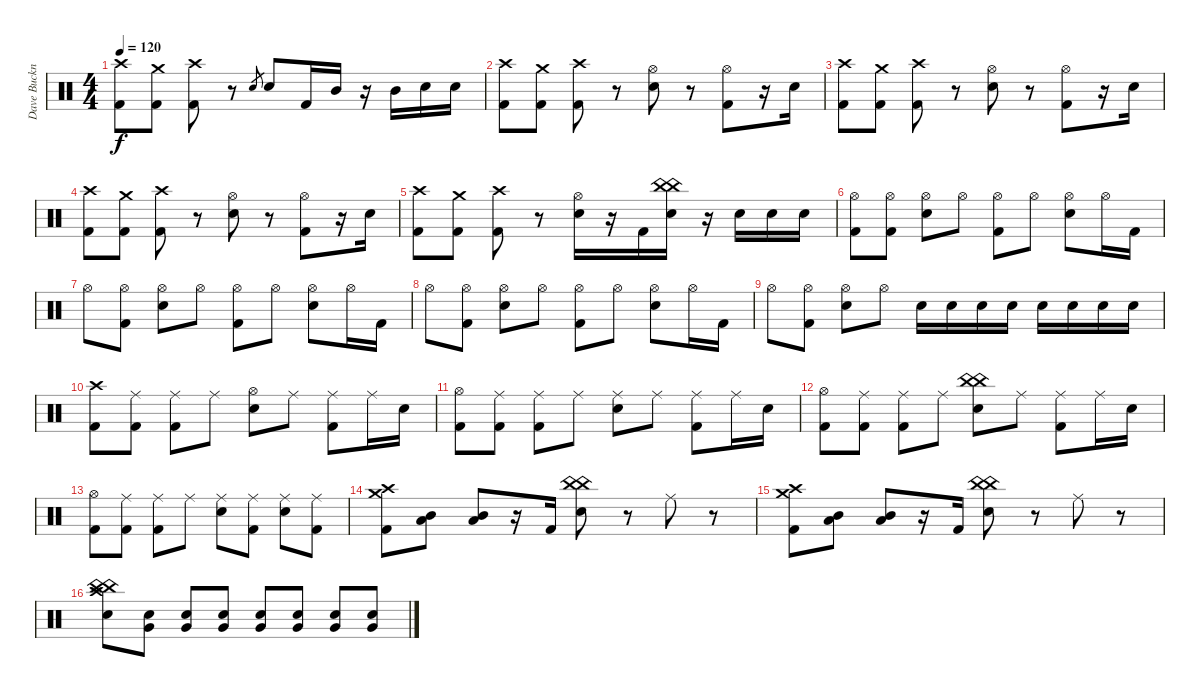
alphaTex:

\track ("Dave Buckner RULZ!!! (Drums)" "Dave Buckn") {instrument percussion}
\staff {score}
\articulation defaults
\ts (4 4)
\tempo 120
\clef neutral
\ks c
("Crash high (hit)" "Kick (hit) 2").8{dy f} ("Crash medium (hit)" "Kick (hit) 2").8 ("Crash high (hit)" "Kick (hit) 2").8 r.8 "Electric Snare (hit)".8{gr} "Electric Snare (hit)".8 "Kick (hit) 2".16 "Mid Tom (hit)".16 r.16 "Mid Tom (hit)".16 "Electric Snare (hit)".16 "Electric Snare (hit)".16 |
("Crash high (hit)" "Kick (hit) 2").8 ("Crash medium (hit)" "Kick (hit) 2").8 ("Crash high (hit)" "Kick (hit) 2").8 r.8 ("Hi-Hat (open)" "Electric Snare (hit)").8 r.8 ("Hi-Hat (open)" "Kick (hit) 2").8 r.16 "Electric Snare (hit)".16 |
("Crash high (hit)" "Kick (hit) 2").8 ("Crash medium (hit)" "Kick (hit) 2").8 ("Crash high (hit)" "Kick (hit) 2").8 r.8 ("Hi-Hat (open)" "Electric Snare (hit)").8 r.8 ("Hi-Hat (open)" "Kick (hit) 2").8 r.16 "Electric Snare (hit)".16 |
("Crash high (hit)" "Kick (hit) 2").8 ("Crash medium (hit)" "Kick (hit) 2").8 ("Crash high (hit)" "Kick (hit) 2").8 r.8 ("Hi-Hat (open)" "Electric Snare (hit)").8 r.8 ("Hi-Hat (open)" "Kick (hit) 2").8 r.16 "Electric Snare (hit)".16 |
("Crash high (hit)" "Kick (hit) 2").8 ("Crash medium (hit)" "Kick (hit) 2").8 ("Crash high (hit)" "Kick (hit) 2").8 r.8 ("Hi-Hat (open)" "Electric Snare (hit)").16 r.16 "Kick (hit) 2".16 ("China (hit)" "China (hit)" "Electric Snare (hit)").16 r.16 "Electric Snare (hit)".16 "Electric Snare (hit)".16 "Electric Snare (hit)".16 |
("Hi-Hat (open)" "Kick (hit) 2").8 ("Hi-Hat (open)" "Kick (hit) 2").8 ("Hi-Hat (open)" "Electric Snare (hit)").8 "Hi-Hat (open)".8 ("Hi-Hat (open)" "Kick (hit) 2").8 "Hi-Hat (open)".8 ("Hi-Hat (open)" "Electric Snare (hit)").8 "Hi-Hat (open)".16 "Kick (hit) 2".16 |
"Hi-Hat (open)".8 ("Hi-Hat (open)" "Kick (hit) 2").8 ("Hi-Hat (open)" "Electric Snare (hit)").8 "Hi-Hat (open)".8 ("Hi-Hat (open)" "Kick (hit) 2").8 "Hi-Hat (open)".8 ("Hi-Hat (open)" "Electric Snare (hit)").8 "Hi-Hat (open)".16 "Kick (hit) 2".16 |
"Hi-Hat (open)".8 ("Hi-Hat (open)" "Kick (hit) 2").8 ("Hi-Hat (open)" "Electric Snare (hit)").8 "Hi-Hat (open)".8 ("Hi-Hat (open)" "Kick (hit) 2").8 "Hi-Hat (open)".8 ("Hi-Hat (open)" "Electric Snare (hit)").8 "Hi-Hat (open)".16 "Kick (hit) 2".16 |
"Hi-Hat (open)".8 ("Hi-Hat (open)" "Kick (hit) 2").8 ("Hi-Hat (open)" "Electric Snare (hit)").8 "Hi-Hat (open)".8 "Electric Snare (hit)".16 "Electric Snare (hit)".16 "Electric Snare (hit)".16 "Electric Snare (hit)".16 "Electric Snare (hit)".16 "Electric Snare (hit)".16 "Electric Snare (hit)".16 "Electric Snare (hit)".16 |
("Crash high (hit)" "Kick (hit) 2").8 ("Ride (middle)" "Kick (hit) 2").8 ("Ride (middle)" "Kick (hit) 2").8 "Ride (middle)".8 ("Hi-Hat (open)" "Electric Snare (hit)").8 "Ride (middle)".8 ("Ride (middle)" "Kick (hit) 2").8 "Ride (middle)".16 "Electric Snare (hit)".16 |
("Hi-Hat (open)" "Kick (hit) 2").8 ("Ride (middle)" "Kick (hit) 2").8 ("Ride (middle)" "Kick (hit) 2").8 "Ride (middle)".8 ("Ride (middle)" "Electric Snare (hit)").8 "Ride (middle)".8 ("Ride (middle)" "Kick (hit) 2").8 "Ride (middle)".16 "Electric Snare (hit)".16 |
("Hi-Hat (open)" "Kick (hit) 2").8 ("Ride (middle)" "Kick (hit) 2").8 ("Ride (middle)" "Kick (hit) 2").8 "Ride (middle)".8 ("China (hit)" "China (hit)" "Electric Snare (hit)").8 "Ride (middle)".8 ("Ride (middle)" "Kick (hit) 2").8 "Ride (middle)".16 "Electric Snare (hit)".16 |
("Hi-Hat (open)" "Kick (hit) 2").8 ("Ride (middle)" "Kick (hit) 2").8 ("Ride (middle)" "Kick (hit) 2").8 "Ride (middle)".8 ("Ride (middle)" "Electric Snare (hit)").8 ("Ride (middle)" "Kick (hit) 2").8 ("Ride (middle)" "Electric Snare (hit)").8 ("Ride (middle)" "Kick (hit) 2").8 |
("Crash high (hit)" "Crash medium (hit)" "Kick (hit) 2").8 ("Mid Tom (hit)" "Low Tom (hit)").8 ("Mid Tom (hit)" "Low Tom (hit)").8 r.16 "Kick (hit) 2".16 ("China (hit)" "China (hit)" "Electric Snare (hit)").8 r.8 "Ride (middle)".8 r.8 |
("Crash high (hit)" "Crash medium (hit)" "Kick (hit) 2").8 ("Mid Tom (hit)" "Low Tom (hit)").8 ("Mid Tom (hit)" "Low Tom (hit)").8 r.16 "Kick (hit) 2".16 ("China (hit)" "China (hit)" "Electric Snare (hit)").8 r.8 "Ride (middle)".8 r.8 |
("Crash high (hit)" "China (hit)" "China (hit)" "Electric Snare (hit)").8 ("Electric Snare (hit)" "Very Low Tom (hit)").8 ("Electric Snare (hit)" "Very Low Tom (hit)").8 ("Electric Snare (hit)" "Very Low Tom (hit)").8 ("Electric Snare (hit)" "Very Low Tom (hit)").8 ("Electric Snare (hit)" "Very Low Tom (hit)").8 ("Electric Snare (hit)" "Very Low Tom (hit)").8 ("Electric Snare (hit)" "Very Low Tom (hit)").8
